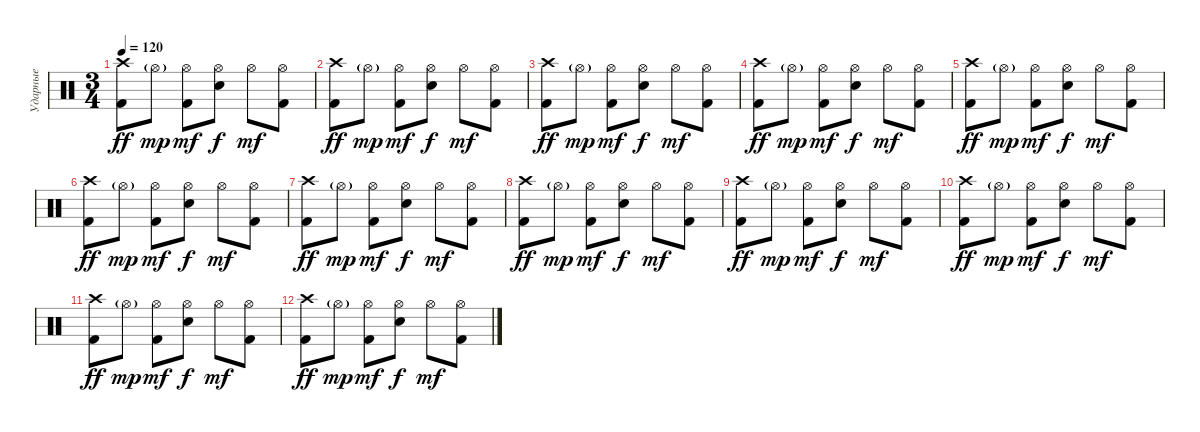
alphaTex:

\track ("Ударные" "Ударные") {instrument percussion}
\staff {score}
\articulation defaults
\ts (3 4)
\tempo 120
\clef neutral
\ks c
("Crash high (hit)" "Kick (hit) 2").8{dy ff} "Hi-Hat (open)"{g}.8{dy mp} ("Hi-Hat (open)" "Kick (hit) 2").8{dy mf} ("Hi-Hat (open)" "Electric Snare (hit)").8{dy f} "Hi-Hat (open)".8{dy mf} ("Hi-Hat (open)" "Kick (hit) 2").8 |
("Crash high (hit)" "Kick (hit) 2").8{dy ff} "Hi-Hat (open)"{g}.8{dy mp} ("Hi-Hat (open)" "Kick (hit) 2").8{dy mf} ("Hi-Hat (open)" "Electric Snare (hit)").8{dy f} "Hi-Hat (open)".8{dy mf} ("Hi-Hat (open)" "Kick (hit) 2").8 |
("Crash high (hit)" "Kick (hit) 2").8{dy ff} "Hi-Hat (open)"{g}.8{dy mp} ("Hi-Hat (open)" "Kick (hit) 2").8{dy mf} ("Hi-Hat (open)" "Electric Snare (hit)").8{dy f} "Hi-Hat (open)".8{dy mf} ("Hi-Hat (open)" "Kick (hit) 2").8 |
("Crash high (hit)" "Kick (hit) 2").8{dy ff} "Hi-Hat (open)"{g}.8{dy mp} ("Hi-Hat (open)" "Kick (hit) 2").8{dy mf} ("Hi-Hat (open)" "Electric Snare (hit)").8{dy f} "Hi-Hat (open)".8{dy mf} ("Hi-Hat (open)" "Kick (hit) 2").8 |
("Crash high (hit)" "Kick (hit) 2").8{dy ff} "Hi-Hat (open)"{g}.8{dy mp} ("Hi-Hat (open)" "Kick (hit) 2").8{dy mf} ("Hi-Hat (open)" "Electric Snare (hit)").8{dy f} "Hi-Hat (open)".8{dy mf} ("Hi-Hat (open)" "Kick (hit) 2").8 |
("Crash high (hit)" "Kick (hit) 2").8{dy ff} "Hi-Hat (open)"{g}.8{dy mp} ("Hi-Hat (open)" "Kick (hit) 2").8{dy mf} ("Hi-Hat (open)" "Electric Snare (hit)").8{dy f} "Hi-Hat (open)".8{dy mf} ("Hi-Hat (open)" "Kick (hit) 2").8 |
("Crash high (hit)" "Kick (hit) 2").8{dy ff} "Hi-Hat (open)"{g}.8{dy mp} ("Hi-Hat (open)" "Kick (hit) 2").8{dy mf} ("Hi-Hat (open)" "Electric Snare (hit)").8{dy f} "Hi-Hat (open)".8{dy mf} ("Hi-Hat (open)" "Kick (hit) 2").8 |
("Crash high (hit)" "Kick (hit) 2").8{dy ff} "Hi-Hat (open)"{g}.8{dy mp} ("Hi-Hat (open)" "Kick (hit) 2").8{dy mf} ("Hi-Hat (open)" "Electric Snare (hit)").8{dy f} "Hi-Hat (open)".8{dy mf} ("Hi-Hat (open)" "Kick (hit) 2").8 |
("Crash high (hit)" "Kick (hit) 2").8{dy ff} "Hi-Hat (open)"{g}.8{dy mp} ("Hi-Hat (open)" "Kick (hit) 2").8{dy mf} ("Hi-Hat (open)" "Electric Snare (hit)").8{dy f} "Hi-Hat (open)".8{dy mf} ("Hi-Hat (open)" "Kick (hit) 2").8 |
("Crash high (hit)" "Kick (hit) 2").8{dy ff} "Hi-Hat (open)"{g}.8{dy mp} ("Hi-Hat (open)" "Kick (hit) 2").8{dy mf} ("Hi-Hat (open)" "Electric Snare (hit)").8{dy f} "Hi-Hat (open)".8{dy mf} ("Hi-Hat (open)" "Kick (hit) 2").8 |
("Crash high (hit)" "Kick (hit) 2").8{dy ff} "Hi-Hat (open)"{g}.8{dy mp} ("Hi-Hat (open)" "Kick (hit) 2").8{dy mf} ("Hi-Hat (open)" "Electric Snare (hit)").8{dy f} "Hi-Hat (open)".8{dy mf} ("Hi-Hat (open)" "Kick (hit) 2").8 |
("Crash high (hit)" "Kick (hit) 2").8{dy ff} "Hi-Hat (open)"{g}.8{dy mp} ("Hi-Hat (open)" "Kick (hit) 2").8{dy mf} ("Hi-Hat (open)" "Electric Snare (hit)").8{dy f} "Hi-Hat (open)".8{dy mf} ("Hi-Hat (open)" "Kick (hit) 2").8
